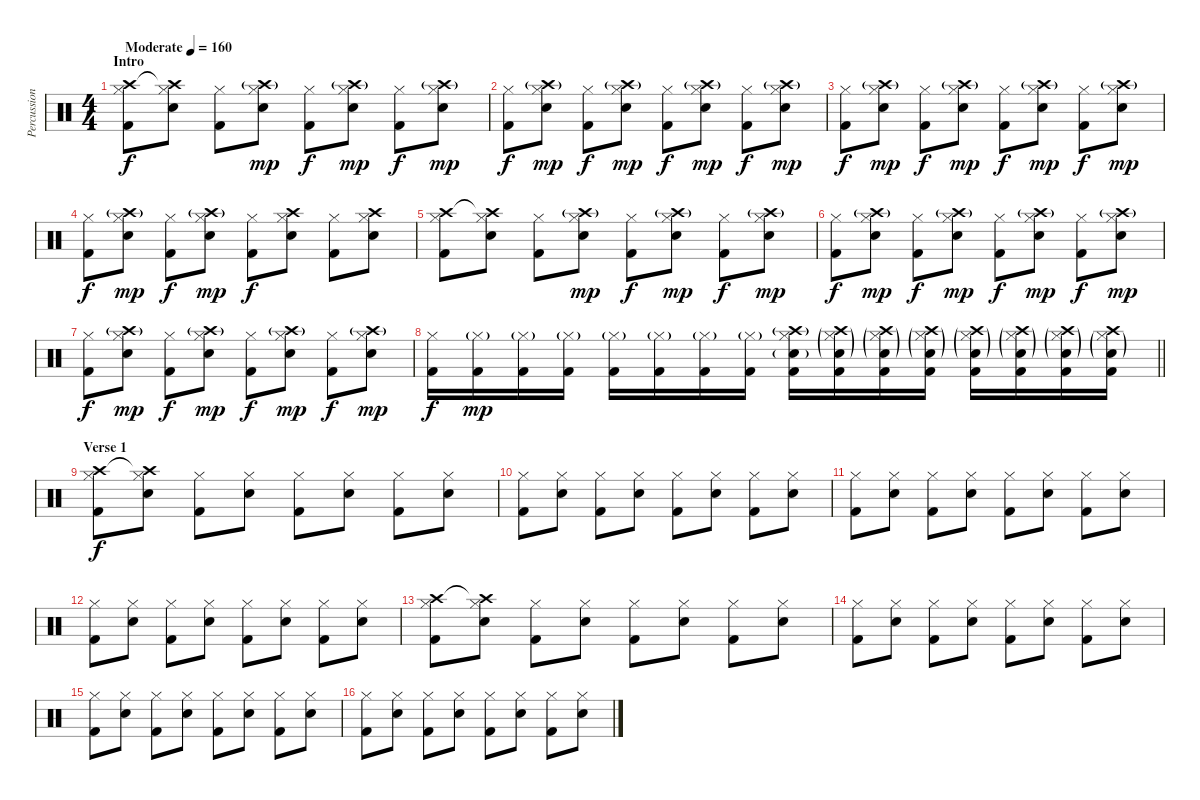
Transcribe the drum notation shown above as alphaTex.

\track ("Percussion" "Percussion") {instrument percussion}
\staff {score}
\articulation defaults
\ts (4 4)
\section ("" "Intro")
\tempo (160 "Moderate")
\clef neutral
\ks c
("Crash high (hit)" "Hi-Hat (closed)" "Kick (hit) 2").8{dy f} ("Crash high (hit)"{t} "Hi-Hat (closed)" "Snare (hit) 2").8 ("Hi-Hat (closed)" "Kick (hit) 2").8 ("Crash high (hit)"{g} "Hi-Hat (closed)" "Snare (hit) 2").8{dy mp} ("Hi-Hat (closed)" "Kick (hit) 2").8{dy f} ("Crash high (hit)"{g} "Hi-Hat (closed)" "Snare (hit) 2").8{dy mp} ("Hi-Hat (closed)" "Kick (hit) 2").8{dy f} ("Crash high (hit)"{g} "Hi-Hat (closed)" "Snare (hit) 2").8{dy mp} |
("Hi-Hat (closed)" "Kick (hit) 2").8{dy f} ("Crash high (hit)"{g} "Hi-Hat (closed)" "Snare (hit) 2").8{dy mp} ("Hi-Hat (closed)" "Kick (hit) 2").8{dy f} ("Crash high (hit)"{g} "Hi-Hat (closed)" "Snare (hit) 2").8{dy mp} ("Hi-Hat (closed)" "Kick (hit) 2").8{dy f} ("Crash high (hit)"{g} "Hi-Hat (closed)" "Snare (hit) 2").8{dy mp} ("Hi-Hat (closed)" "Kick (hit) 2").8{dy f} ("Crash high (hit)"{g} "Hi-Hat (closed)" "Snare (hit) 2").8{dy mp} |
("Hi-Hat (closed)" "Kick (hit) 2").8{dy f} ("Crash high (hit)"{g} "Hi-Hat (closed)" "Snare (hit) 2").8{dy mp} ("Hi-Hat (closed)" "Kick (hit) 2").8{dy f} ("Crash high (hit)"{g} "Hi-Hat (closed)" "Snare (hit) 2").8{dy mp} ("Hi-Hat (closed)" "Kick (hit) 2").8{dy f} ("Crash high (hit)"{g} "Hi-Hat (closed)" "Snare (hit) 2").8{dy mp} ("Hi-Hat (closed)" "Kick (hit) 2").8{dy f} ("Crash high (hit)"{g} "Hi-Hat (closed)" "Snare (hit) 2").8{dy mp} |
("Hi-Hat (closed)" "Kick (hit) 2").8{dy f} ("Crash high (hit)"{g} "Hi-Hat (closed)" "Snare (hit) 2").8{dy mp} ("Hi-Hat (closed)" "Kick (hit) 2").8{dy f} ("Crash high (hit)"{g} "Hi-Hat (closed)" "Snare (hit) 2").8{dy mp} ("Hi-Hat (closed)" "Kick (hit) 2").8{dy f} ("Crash high (hit)" "Hi-Hat (closed)" "Snare (hit) 2").8 ("Hi-Hat (closed)" "Kick (hit) 2").8 ("Crash high (hit)" "Hi-Hat (closed)" "Snare (hit) 2").8 |
("Crash high (hit)" "Hi-Hat (closed)" "Kick (hit) 2").8 ("Crash high (hit)"{t} "Hi-Hat (closed)" "Snare (hit) 2").8 ("Hi-Hat (closed)" "Kick (hit) 2").8 ("Crash high (hit)"{g} "Hi-Hat (closed)" "Snare (hit) 2").8{dy mp} ("Hi-Hat (closed)" "Kick (hit) 2").8{dy f} ("Crash high (hit)"{g} "Hi-Hat (closed)" "Snare (hit) 2").8{dy mp} ("Hi-Hat (closed)" "Kick (hit) 2").8{dy f} ("Crash high (hit)"{g} "Hi-Hat (closed)" "Snare (hit) 2").8{dy mp} |
("Hi-Hat (closed)" "Kick (hit) 2").8{dy f} ("Crash high (hit)"{g} "Hi-Hat (closed)" "Snare (hit) 2").8{dy mp} ("Hi-Hat (closed)" "Kick (hit) 2").8{dy f} ("Crash high (hit)"{g} "Hi-Hat (closed)" "Snare (hit) 2").8{dy mp} ("Hi-Hat (closed)" "Kick (hit) 2").8{dy f} ("Crash high (hit)"{g} "Hi-Hat (closed)" "Snare (hit) 2").8{dy mp} ("Hi-Hat (closed)" "Kick (hit) 2").8{dy f} ("Crash high (hit)"{g} "Hi-Hat (closed)" "Snare (hit) 2").8{dy mp} |
("Hi-Hat (closed)" "Kick (hit) 2").8{dy f} ("Crash high (hit)"{g} "Hi-Hat (closed)" "Snare (hit) 2").8{dy mp} ("Hi-Hat (closed)" "Kick (hit) 2").8{dy f} ("Crash high (hit)"{g} "Hi-Hat (closed)" "Snare (hit) 2").8{dy mp} ("Hi-Hat (closed)" "Kick (hit) 2").8{dy f} ("Crash high (hit)"{g} "Hi-Hat (closed)" "Snare (hit) 2").8{dy mp} ("Hi-Hat (closed)" "Kick (hit) 2").8{dy f} ("Crash high (hit)"{g} "Hi-Hat (closed)" "Snare (hit) 2").8{dy mp} |
\barLineRight lightlight
("Hi-Hat (closed)" "Kick (hit) 2").16{dy f} ("Hi-Hat (closed)"{g} "Kick (hit) 2").16{dy mp} ("Hi-Hat (closed)"{g} "Kick (hit) 2").16 ("Hi-Hat (closed)"{g} "Kick (hit) 2").16 ("Hi-Hat (closed)"{g} "Kick (hit) 2").16 ("Hi-Hat (closed)"{g} "Kick (hit) 2").16 ("Hi-Hat (closed)"{g} "Kick (hit) 2").16 ("Hi-Hat (closed)"{g} "Kick (hit) 2").16 ("Crash high (hit)"{g} "Electric Snare (hit)"{g} "Hi-Hat (closed)" "Kick (hit) 2").16 ("Crash high (hit)"{g} "Electric Snare (hit)"{g} "Hi-Hat (closed)"{g} "Kick (hit) 2").16 ("Crash high (hit)"{g} "Electric Snare (hit)"{g} "Hi-Hat (closed)"{g} "Kick (hit) 2").16 ("Crash high (hit)"{g} "Electric Snare (hit)"{g} "Hi-Hat (closed)"{g} "Kick (hit) 2").16 ("Crash high (hit)"{g} "Electric Snare (hit)"{g} "Hi-Hat (closed)"{g} "Kick (hit) 2").16 ("Crash high (hit)"{g} "Electric Snare (hit)"{g} "Hi-Hat (closed)"{g} "Kick (hit) 2").16 ("Crash high (hit)"{g} "Electric Snare (hit)"{g} "Hi-Hat (closed)"{g} "Kick (hit) 2").16 ("Crash high (hit)" "Electric Snare (hit)"{g} "Hi-Hat (closed)"{g} "Kick (hit) 2").16 |
\section ("" "Verse 1")
("Crash high (hit)" "Hi-Hat (closed)" "Kick (hit) 2").8{dy f} ("Crash high (hit)"{t} "Hi-Hat (closed)" "Snare (hit) 2").8 ("Hi-Hat (closed)" "Kick (hit) 2").8 ("Hi-Hat (closed)" "Snare (hit) 2").8 ("Hi-Hat (closed)" "Kick (hit) 2").8 ("Hi-Hat (closed)" "Snare (hit) 2").8 ("Hi-Hat (closed)" "Kick (hit) 2").8 ("Hi-Hat (closed)" "Snare (hit) 2").8 |
("Hi-Hat (closed)" "Kick (hit) 2").8 ("Hi-Hat (closed)" "Snare (hit) 2").8 ("Hi-Hat (closed)" "Kick (hit) 2").8 ("Hi-Hat (closed)" "Snare (hit) 2").8 ("Hi-Hat (closed)" "Kick (hit) 2").8 ("Hi-Hat (closed)" "Snare (hit) 2").8 ("Hi-Hat (closed)" "Kick (hit) 2").8 ("Hi-Hat (closed)" "Snare (hit) 2").8 |
("Hi-Hat (closed)" "Kick (hit) 2").8 ("Hi-Hat (closed)" "Snare (hit) 2").8 ("Hi-Hat (closed)" "Kick (hit) 2").8 ("Hi-Hat (closed)" "Snare (hit) 2").8 ("Hi-Hat (closed)" "Kick (hit) 2").8 ("Hi-Hat (closed)" "Snare (hit) 2").8 ("Hi-Hat (closed)" "Kick (hit) 2").8 ("Hi-Hat (closed)" "Snare (hit) 2").8 |
("Hi-Hat (closed)" "Kick (hit) 2").8 ("Hi-Hat (closed)" "Snare (hit) 2").8 ("Hi-Hat (closed)" "Kick (hit) 2").8 ("Hi-Hat (closed)" "Snare (hit) 2").8 ("Hi-Hat (closed)" "Kick (hit) 2").8 ("Hi-Hat (closed)" "Snare (hit) 2").8 ("Hi-Hat (closed)" "Kick (hit) 2").8 ("Hi-Hat (closed)" "Snare (hit) 2").8 |
("Crash high (hit)" "Hi-Hat (closed)" "Kick (hit) 2").8 ("Crash high (hit)"{t} "Hi-Hat (closed)" "Snare (hit) 2").8 ("Hi-Hat (closed)" "Kick (hit) 2").8 ("Hi-Hat (closed)" "Snare (hit) 2").8 ("Hi-Hat (closed)" "Kick (hit) 2").8 ("Hi-Hat (closed)" "Snare (hit) 2").8 ("Hi-Hat (closed)" "Kick (hit) 2").8 ("Hi-Hat (closed)" "Snare (hit) 2").8 |
("Hi-Hat (closed)" "Kick (hit) 2").8 ("Hi-Hat (closed)" "Snare (hit) 2").8 ("Hi-Hat (closed)" "Kick (hit) 2").8 ("Hi-Hat (closed)" "Snare (hit) 2").8 ("Hi-Hat (closed)" "Kick (hit) 2").8 ("Hi-Hat (closed)" "Snare (hit) 2").8 ("Hi-Hat (closed)" "Kick (hit) 2").8 ("Hi-Hat (closed)" "Snare (hit) 2").8 |
("Hi-Hat (closed)" "Kick (hit) 2").8 ("Hi-Hat (closed)" "Snare (hit) 2").8 ("Hi-Hat (closed)" "Kick (hit) 2").8 ("Hi-Hat (closed)" "Snare (hit) 2").8 ("Hi-Hat (closed)" "Kick (hit) 2").8 ("Hi-Hat (closed)" "Snare (hit) 2").8 ("Hi-Hat (closed)" "Kick (hit) 2").8 ("Hi-Hat (closed)" "Snare (hit) 2").8 |
("Hi-Hat (closed)" "Kick (hit) 2").8 ("Hi-Hat (closed)" "Snare (hit) 2").8 ("Hi-Hat (closed)" "Kick (hit) 2").8 ("Hi-Hat (closed)" "Snare (hit) 2").8 ("Hi-Hat (closed)" "Kick (hit) 2").8 ("Hi-Hat (closed)" "Snare (hit) 2").8 ("Hi-Hat (closed)" "Kick (hit) 2").8 ("Hi-Hat (closed)" "Snare (hit) 2").8
